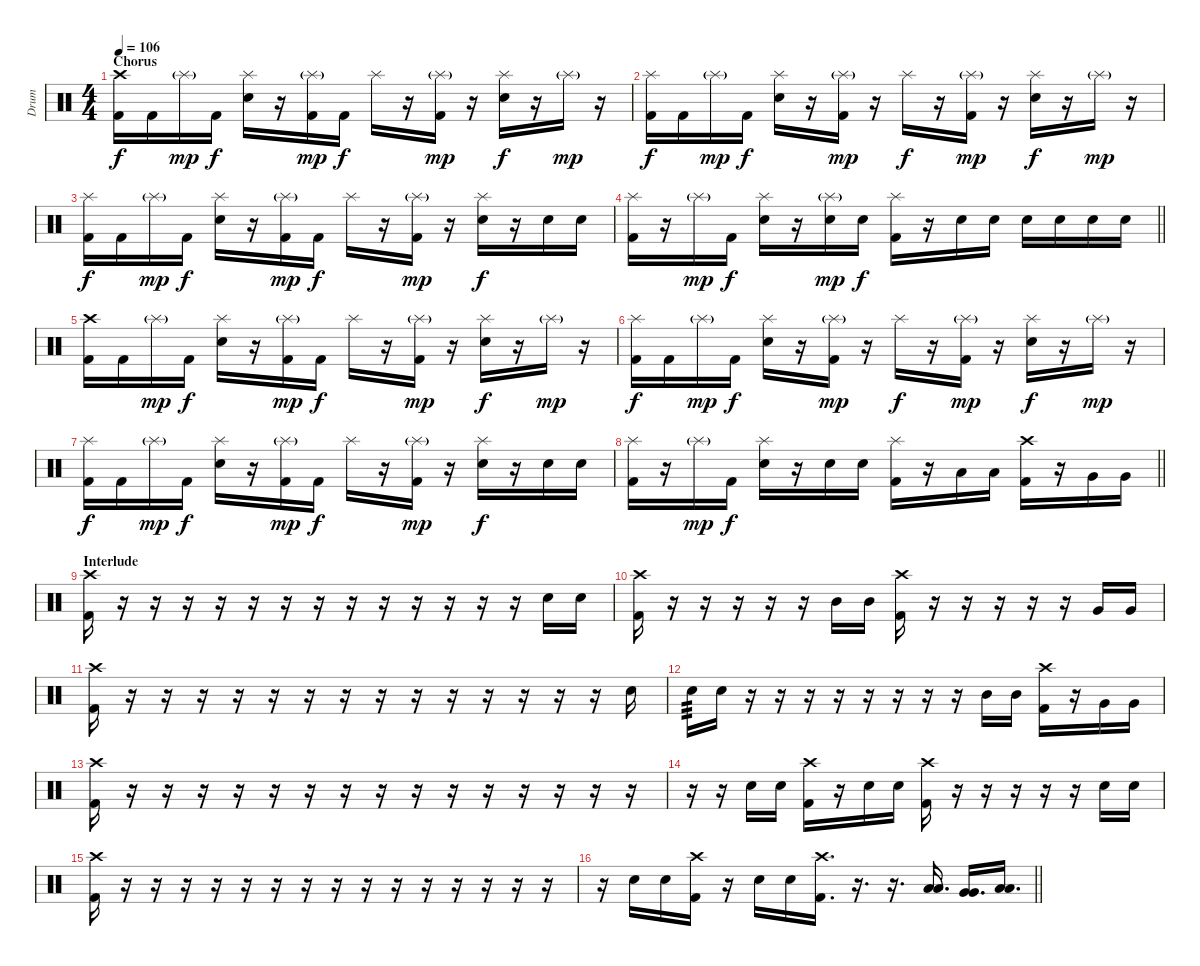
\track ("Drum" "Drum") {instrument percussion}
\staff {score}
\articulation defaults
\ts (4 4)
\section ("" "Chorus")
\tempo 106
\clef neutral
\ks c
("Crash high (hit)" "Kick (hit) 2").16{dy f} "Kick (hit) 2".16 "Splash (hit)"{g}.16{dy mp} "Kick (hit) 2".16{dy f} ("Splash (hit)" "Electric Snare (hit)").16 r.16 ("Splash (hit)"{g} "Kick (hit) 2").16{dy mp} "Kick (hit) 2".16{dy f} "Splash (hit)".16 r.16 ("Splash (hit)"{g} "Kick (hit) 2").16{dy mp} r.16 ("Splash (hit)" "Electric Snare (hit)").16{dy f} r.16 "Splash (hit)"{g}.16{dy mp} r.16 |
("Splash (hit)" "Kick (hit) 2").16{dy f} "Kick (hit) 2".16 "Splash (hit)"{g}.16{dy mp} "Kick (hit) 2".16{dy f} ("Splash (hit)" "Electric Snare (hit)").16 r.16 ("Splash (hit)"{g} "Kick (hit) 2").16{dy mp} r.16 "Splash (hit)".16{dy f} r.16 ("Splash (hit)"{g} "Kick (hit) 2").16{dy mp} r.16 ("Splash (hit)" "Electric Snare (hit)").16{dy f} r.16 "Splash (hit)"{g}.16{dy mp} r.16 |
("Splash (hit)" "Kick (hit) 2").16{dy f} "Kick (hit) 2".16 "Splash (hit)"{g}.16{dy mp} "Kick (hit) 2".16{dy f} ("Splash (hit)" "Electric Snare (hit)").16 r.16 ("Splash (hit)"{g} "Kick (hit) 2").16{dy mp} "Kick (hit) 2".16{dy f} "Splash (hit)".16 r.16 ("Splash (hit)"{g} "Kick (hit) 2").16{dy mp} r.16 ("Splash (hit)" "Electric Snare (hit)").16{dy f} r.16 "Electric Snare (hit)".16 "Electric Snare (hit)".16 |
\barLineRight lightlight
("Splash (hit)" "Kick (hit) 2").16 r.16 "Splash (hit)"{g}.16{dy mp} "Kick (hit) 2".16{dy f} ("Splash (hit)" "Electric Snare (hit)").16 r.16 ("Splash (hit)"{g} "Electric Snare (hit)").16{dy mp} "Electric Snare (hit)".16{dy f} ("Splash (hit)" "Kick (hit) 2").16 r.16 "Electric Snare (hit)".16 "Electric Snare (hit)".16 "Electric Snare (hit)".16 "Electric Snare (hit)".16 "Electric Snare (hit)".16 "Electric Snare (hit)".16 |
("Crash high (hit)" "Kick (hit) 2").16 "Kick (hit) 2".16 "Splash (hit)"{g}.16{dy mp} "Kick (hit) 2".16{dy f} ("Splash (hit)" "Electric Snare (hit)").16 r.16 ("Splash (hit)"{g} "Kick (hit) 2").16{dy mp} "Kick (hit) 2".16{dy f} "Splash (hit)".16 r.16 ("Splash (hit)"{g} "Kick (hit) 2").16{dy mp} r.16 ("Splash (hit)" "Electric Snare (hit)").16{dy f} r.16 "Splash (hit)"{g}.16{dy mp} r.16 |
("Splash (hit)" "Kick (hit) 2").16{dy f} "Kick (hit) 2".16 "Splash (hit)"{g}.16{dy mp} "Kick (hit) 2".16{dy f} ("Splash (hit)" "Electric Snare (hit)").16 r.16 ("Splash (hit)"{g} "Kick (hit) 2").16{dy mp} r.16 "Splash (hit)".16{dy f} r.16 ("Splash (hit)"{g} "Kick (hit) 2").16{dy mp} r.16 ("Splash (hit)" "Electric Snare (hit)").16{dy f} r.16 "Splash (hit)"{g}.16{dy mp} r.16 |
("Splash (hit)" "Kick (hit) 2").16{dy f} "Kick (hit) 2".16 "Splash (hit)"{g}.16{dy mp} "Kick (hit) 2".16{dy f} ("Splash (hit)" "Electric Snare (hit)").16 r.16 ("Splash (hit)"{g} "Kick (hit) 2").16{dy mp} "Kick (hit) 2".16{dy f} "Splash (hit)".16 r.16 ("Splash (hit)"{g} "Kick (hit) 2").16{dy mp} r.16 ("Splash (hit)" "Electric Snare (hit)").16{dy f} r.16 "Electric Snare (hit)".16 "Electric Snare (hit)".16 |
\barLineRight lightlight
("Splash (hit)" "Kick (hit) 2").16 r.16 "Splash (hit)"{g}.16{dy mp} "Kick (hit) 2".16{dy f} ("Splash (hit)" "Electric Snare (hit)").16 r.16 "Electric Snare (hit)".16 "Electric Snare (hit)".16 ("Splash (hit)" "Kick (hit) 2").16 r.16 "Low Tom (hit)".16 "Low Tom (hit)".16 ("Crash high (hit)" "Kick (hit) 2").16 r.16 "Very Low Tom (hit)".16 "Very Low Tom (hit)".16 |
\section ("" "Interlude")
("Crash high (hit)" "Kick (hit) 2").16 r.16 r.16 r.16 r.16 r.16 r.16 r.16 r.16 r.16 r.16 r.16 r.16 r.16 "Electric Snare (hit)".16 "Electric Snare (hit)".16 |
("Crash high (hit)" "Kick (hit) 2").16 r.16 r.16 r.16 r.16 r.16 "Mid Tom (hit)".16 "Mid Tom (hit)".16 ("Crash high (hit)" "Kick (hit) 2").16 r.16 r.16 r.16 r.16 r.16 "Very Low Tom (hit)".16 "Very Low Tom (hit)".16 |
("Crash high (hit)" "Kick (hit) 2").16 r.16 r.16 r.16 r.16 r.16 r.16 r.16 r.16 r.16 r.16 r.16 r.16 r.16 r.16 "Electric Snare (hit)".16 |
"Electric Snare (hit)".16{tp 3} "Electric Snare (hit)".16 r.16 r.16 r.16 r.16 r.16 r.16 r.16 r.16 "Mid Tom (hit)".16 "Mid Tom (hit)".16 ("Crash high (hit)" "Kick (hit) 2").16 r.16 "Very Low Tom (hit)".16 "Very Low Tom (hit)".16 |
("Crash high (hit)" "Kick (hit) 2").16 r.16 r.16 r.16 r.16 r.16 r.16 r.16 r.16 r.16 r.16 r.16 r.16 r.16 r.16 r.16 |
r.16 r.16 "Electric Snare (hit)".16 "Electric Snare (hit)".16 ("Crash high (hit)" "Kick (hit) 2").16 r.16 "Electric Snare (hit)".16 "Electric Snare (hit)".16 ("Crash high (hit)" "Kick (hit) 2").16 r.16 r.16 r.16 r.16 r.16 "Electric Snare (hit)".16 "Electric Snare (hit)".16 |
("Crash high (hit)" "Kick (hit) 2").16 r.16 r.16 r.16 r.16 r.16 r.16 r.16 r.16 r.16 r.16 r.16 r.16 r.16 r.16 r.16 |
\barLineRight lightlight
r.16 "Electric Snare (hit)".16 "Electric Snare (hit)".16 ("Crash high (hit)" "Kick (hit) 2").16 r.16 "Electric Snare (hit)".16 "Electric Snare (hit)".16 ("Crash high (hit)" "Kick (hit) 2").16{d} r.16{d} r.16{d} ("Low Tom (hit)" "Low Tom (hit)").16{d} ("Very Low Tom (hit)" "Very Low Tom (hit)").16{d} ("Low Floor Tom (hit)" "Low Floor Tom (hit)").16{d}
